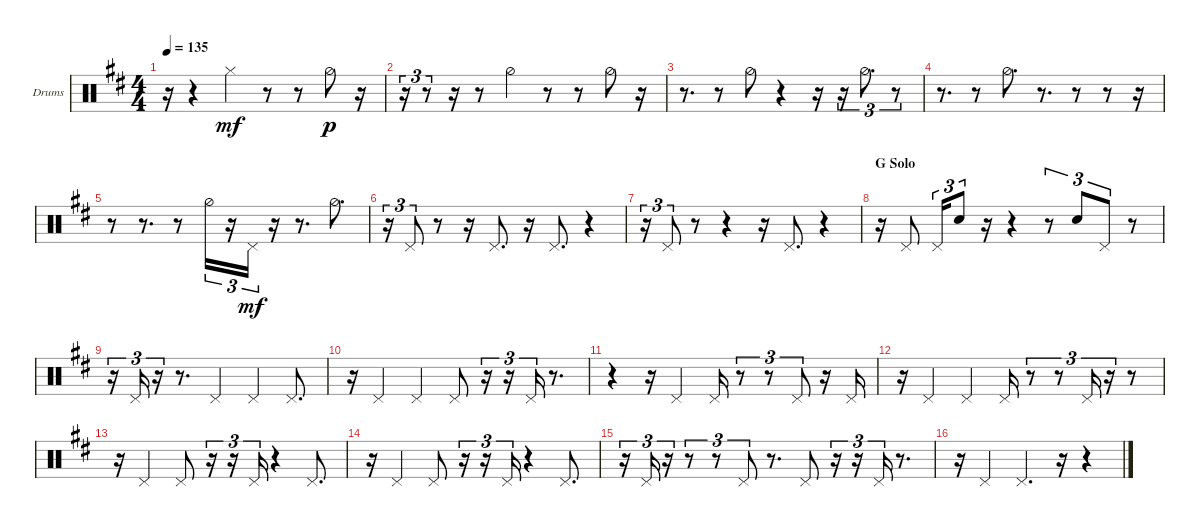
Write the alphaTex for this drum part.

\bracketExtendMode groupsimilarinstruments
\firstSystemTrackNameOrientation horizontal
\otherSystemsTrackNameOrientation horizontal
\track ("HH" "Drums") {instrument percussion}
\staff {score}
\articulation defaults
\ts (4 4)
\tempo 135
\clef neutral
\ks d
r.16{dy mf} r.4 "Hi-Hat (closed)".4 r.8 r.8 "Hi-Hat (half)".8{dy p} r.16 |
r.16{tu (3 2)} r.8{tu (3 2)} r.16 r.8 "Hi-Hat (half)".4 r.8 r.8 "Hi-Hat (half)".8 r.16 |
r.8{d} r.8 "Hi-Hat (half)".8 r.4 r.16 r.16{tu (3 2)} "Hi-Hat (half)".8{d tu (3 2)} r.8{tu (3 2)} |
r.8{d} r.8 "Hi-Hat (half)".8{d} r.8{d} r.8 r.8 r.16 |
r.8 r.8{d} r.8 "Hi-Hat (half)".16{tu (3 2)} r.16{tu (3 2)} "Pedal Hi-Hat (hit)".16{tu (3 2) dy mf} r.16 r.8{d} "Hi-Hat (half)".8{d} |
r.16{tu (3 2)} "Pedal Hi-Hat (hit)".8{tu (3 2)} r.8 r.16 "Pedal Hi-Hat (hit)".8{d} r.16 "Pedal Hi-Hat (hit)".8{d} r.4 |
r.16{tu (3 2)} "Pedal Hi-Hat (hit)".8{tu (3 2)} r.8 r.4 r.16 "Pedal Hi-Hat (hit)".8{d} r.4 |
\section ("" "G Solo")
r.16 "Pedal Hi-Hat (hit)".8 "Pedal Hi-Hat (hit)".16{tu (3 2)} "Snare (hit) 2".8{tu (3 2)} r.16 r.4 r.8{tu (3 2)} "Snare (hit) 2".8{tu (3 2)} "Pedal Hi-Hat (hit)".8{tu (3 2)} r.8 |
r.16{tu (3 2)} "Pedal Hi-Hat (hit)".16{tu (3 2)} r.16{tu (3 2)} r.8{d} "Pedal Hi-Hat (hit)".4 "Pedal Hi-Hat (hit)".4 "Pedal Hi-Hat (hit)".8{d} |
r.16 "Pedal Hi-Hat (hit)".4 "Pedal Hi-Hat (hit)".4 "Pedal Hi-Hat (hit)".8 r.16{tu (3 2)} r.16{tu (3 2)} "Pedal Hi-Hat (hit)".16{tu (3 2)} r.8{d} |
r.4 r.16 "Pedal Hi-Hat (hit)".4 "Pedal Hi-Hat (hit)".16 r.8{tu (3 2)} r.8{tu (3 2)} "Pedal Hi-Hat (hit)".8{tu (3 2)} r.16 "Pedal Hi-Hat (hit)".16 |
r.16 "Pedal Hi-Hat (hit)".4 "Pedal Hi-Hat (hit)".4 "Pedal Hi-Hat (hit)".16 r.8{tu (3 2)} r.8{tu (3 2)} "Pedal Hi-Hat (hit)".16{tu (3 2)} r.16{tu (3 2)} r.8 |
r.16 "Pedal Hi-Hat (hit)".4 "Pedal Hi-Hat (hit)".8 r.16{tu (3 2)} r.16{tu (3 2)} "Pedal Hi-Hat (hit)".16{tu (3 2)} r.4 "Pedal Hi-Hat (hit)".8{d} |
r.16 "Pedal Hi-Hat (hit)".4 "Pedal Hi-Hat (hit)".8 r.16{tu (3 2)} r.16{tu (3 2)} "Pedal Hi-Hat (hit)".16{tu (3 2)} r.4 "Pedal Hi-Hat (hit)".8{d} |
r.16{tu (3 2)} "Pedal Hi-Hat (hit)".16{tu (3 2)} r.16{tu (3 2)} r.8{tu (3 2)} r.8{tu (3 2)} "Pedal Hi-Hat (hit)".8{tu (3 2)} r.8{d} "Pedal Hi-Hat (hit)".8 r.16{tu (3 2)} r.16{tu (3 2)} "Pedal Hi-Hat (hit)".16{tu (3 2)} r.8{d} |
r.16 "Pedal Hi-Hat (hit)".4 "Pedal Hi-Hat (hit)".4{d} r.16 r.4
